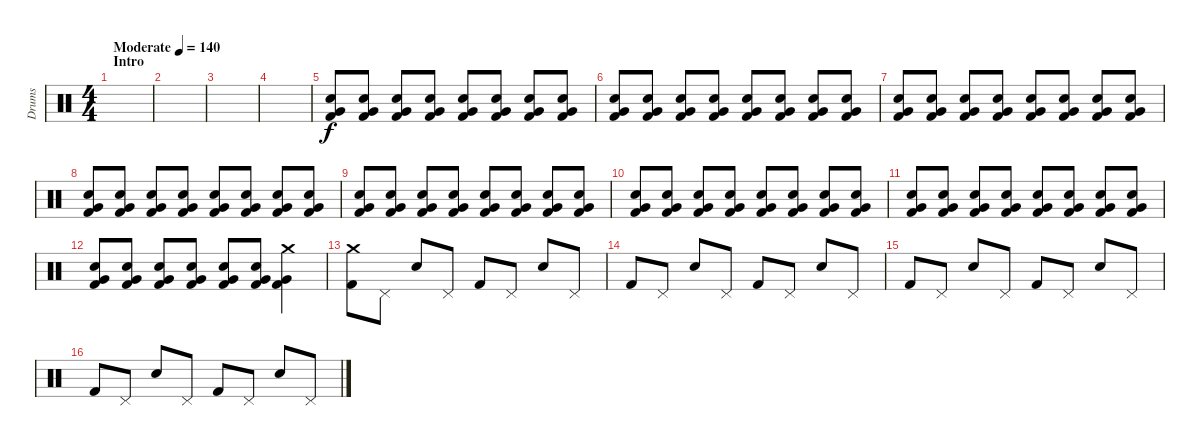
\track ("Drums" "Drums") {instrument percussion}
\staff {score}
\articulation defaults
\ts (4 4)
\section ("" "Intro")
\tempo (140 "Moderate")
\clef neutral
\ks c
|
|
|
|
("Electric Snare (hit)" "Very Low Tom (hit)" "Kick (hit) 2").8 ("Electric Snare (hit)" "Very Low Tom (hit)" "Kick (hit) 2").8 ("Electric Snare (hit)" "Very Low Tom (hit)" "Kick (hit) 2").8 ("Electric Snare (hit)" "Very Low Tom (hit)" "Kick (hit) 2").8 ("Electric Snare (hit)" "Very Low Tom (hit)" "Kick (hit) 2").8 ("Electric Snare (hit)" "Very Low Tom (hit)" "Kick (hit) 2").8 ("Electric Snare (hit)" "Very Low Tom (hit)" "Kick (hit) 2").8 ("Electric Snare (hit)" "Very Low Tom (hit)" "Kick (hit) 2").8 |
("Electric Snare (hit)" "Very Low Tom (hit)" "Kick (hit) 2").8 ("Electric Snare (hit)" "Very Low Tom (hit)" "Kick (hit) 2").8 ("Electric Snare (hit)" "Very Low Tom (hit)" "Kick (hit) 2").8 ("Electric Snare (hit)" "Very Low Tom (hit)" "Kick (hit) 2").8 ("Electric Snare (hit)" "Very Low Tom (hit)" "Kick (hit) 2").8 ("Electric Snare (hit)" "Very Low Tom (hit)" "Kick (hit) 2").8 ("Electric Snare (hit)" "Very Low Tom (hit)" "Kick (hit) 2").8 ("Electric Snare (hit)" "Very Low Tom (hit)" "Kick (hit) 2").8 |
("Electric Snare (hit)" "Very Low Tom (hit)" "Kick (hit) 2").8 ("Electric Snare (hit)" "Very Low Tom (hit)" "Kick (hit) 2").8 ("Electric Snare (hit)" "Very Low Tom (hit)" "Kick (hit) 2").8 ("Electric Snare (hit)" "Very Low Tom (hit)" "Kick (hit) 2").8 ("Electric Snare (hit)" "Very Low Tom (hit)" "Kick (hit) 2").8 ("Electric Snare (hit)" "Very Low Tom (hit)" "Kick (hit) 2").8 ("Electric Snare (hit)" "Very Low Tom (hit)" "Kick (hit) 2").8 ("Electric Snare (hit)" "Very Low Tom (hit)" "Kick (hit) 2").8 |
("Electric Snare (hit)" "Very Low Tom (hit)" "Kick (hit) 2").8 ("Electric Snare (hit)" "Very Low Tom (hit)" "Kick (hit) 2").8 ("Electric Snare (hit)" "Very Low Tom (hit)" "Kick (hit) 2").8 ("Electric Snare (hit)" "Very Low Tom (hit)" "Kick (hit) 2").8 ("Electric Snare (hit)" "Very Low Tom (hit)" "Kick (hit) 2").8 ("Electric Snare (hit)" "Very Low Tom (hit)" "Kick (hit) 2").8 ("Electric Snare (hit)" "Very Low Tom (hit)" "Kick (hit) 2").8 ("Electric Snare (hit)" "Very Low Tom (hit)" "Kick (hit) 2").8 |
("Electric Snare (hit)" "Very Low Tom (hit)" "Kick (hit) 2").8 ("Electric Snare (hit)" "Very Low Tom (hit)" "Kick (hit) 2").8 ("Electric Snare (hit)" "Very Low Tom (hit)" "Kick (hit) 2").8 ("Electric Snare (hit)" "Very Low Tom (hit)" "Kick (hit) 2").8 ("Electric Snare (hit)" "Very Low Tom (hit)" "Kick (hit) 2").8 ("Electric Snare (hit)" "Very Low Tom (hit)" "Kick (hit) 2").8 ("Electric Snare (hit)" "Very Low Tom (hit)" "Kick (hit) 2").8 ("Electric Snare (hit)" "Very Low Tom (hit)" "Kick (hit) 2").8 |
("Electric Snare (hit)" "Very Low Tom (hit)" "Kick (hit) 2").8 ("Electric Snare (hit)" "Very Low Tom (hit)" "Kick (hit) 2").8 ("Electric Snare (hit)" "Very Low Tom (hit)" "Kick (hit) 2").8 ("Electric Snare (hit)" "Very Low Tom (hit)" "Kick (hit) 2").8 ("Electric Snare (hit)" "Very Low Tom (hit)" "Kick (hit) 2").8 ("Electric Snare (hit)" "Very Low Tom (hit)" "Kick (hit) 2").8 ("Electric Snare (hit)" "Very Low Tom (hit)" "Kick (hit) 2").8 ("Electric Snare (hit)" "Very Low Tom (hit)" "Kick (hit) 2").8 |
("Electric Snare (hit)" "Very Low Tom (hit)" "Kick (hit) 2").8 ("Electric Snare (hit)" "Very Low Tom (hit)" "Kick (hit) 2").8 ("Electric Snare (hit)" "Very Low Tom (hit)" "Kick (hit) 2").8 ("Electric Snare (hit)" "Very Low Tom (hit)" "Kick (hit) 2").8 ("Electric Snare (hit)" "Very Low Tom (hit)" "Kick (hit) 2").8 ("Electric Snare (hit)" "Very Low Tom (hit)" "Kick (hit) 2").8 ("Electric Snare (hit)" "Very Low Tom (hit)" "Kick (hit) 2").8 ("Electric Snare (hit)" "Very Low Tom (hit)" "Kick (hit) 2").8 |
("Electric Snare (hit)" "Very Low Tom (hit)" "Kick (hit) 2").8 ("Electric Snare (hit)" "Very Low Tom (hit)" "Kick (hit) 2").8 ("Electric Snare (hit)" "Very Low Tom (hit)" "Kick (hit) 2").8 ("Electric Snare (hit)" "Very Low Tom (hit)" "Kick (hit) 2").8 ("Electric Snare (hit)" "Very Low Tom (hit)" "Kick (hit) 2").8 ("Electric Snare (hit)" "Very Low Tom (hit)" "Kick (hit) 2").8 ("Crash medium (hit)" "Very Low Tom (hit)" "Kick (hit) 2").4 |
("Crash medium (hit)" "Kick (hit) 2").8 "Pedal Hi-Hat (hit)".8 "Electric Snare (hit)".8 "Pedal Hi-Hat (hit)".8 "Kick (hit) 2".8 "Pedal Hi-Hat (hit)".8 "Electric Snare (hit)".8 "Pedal Hi-Hat (hit)".8 |
"Kick (hit) 2".8 "Pedal Hi-Hat (hit)".8 "Electric Snare (hit)".8 "Pedal Hi-Hat (hit)".8 "Kick (hit) 2".8 "Pedal Hi-Hat (hit)".8 "Electric Snare (hit)".8 "Pedal Hi-Hat (hit)".8 |
"Kick (hit) 2".8 "Pedal Hi-Hat (hit)".8 "Electric Snare (hit)".8 "Pedal Hi-Hat (hit)".8 "Kick (hit) 2".8 "Pedal Hi-Hat (hit)".8 "Electric Snare (hit)".8 "Pedal Hi-Hat (hit)".8 |
"Kick (hit) 2".8 "Pedal Hi-Hat (hit)".8 "Electric Snare (hit)".8 "Pedal Hi-Hat (hit)".8 "Kick (hit) 2".8 "Pedal Hi-Hat (hit)".8 "Electric Snare (hit)".8 "Pedal Hi-Hat (hit)".8
